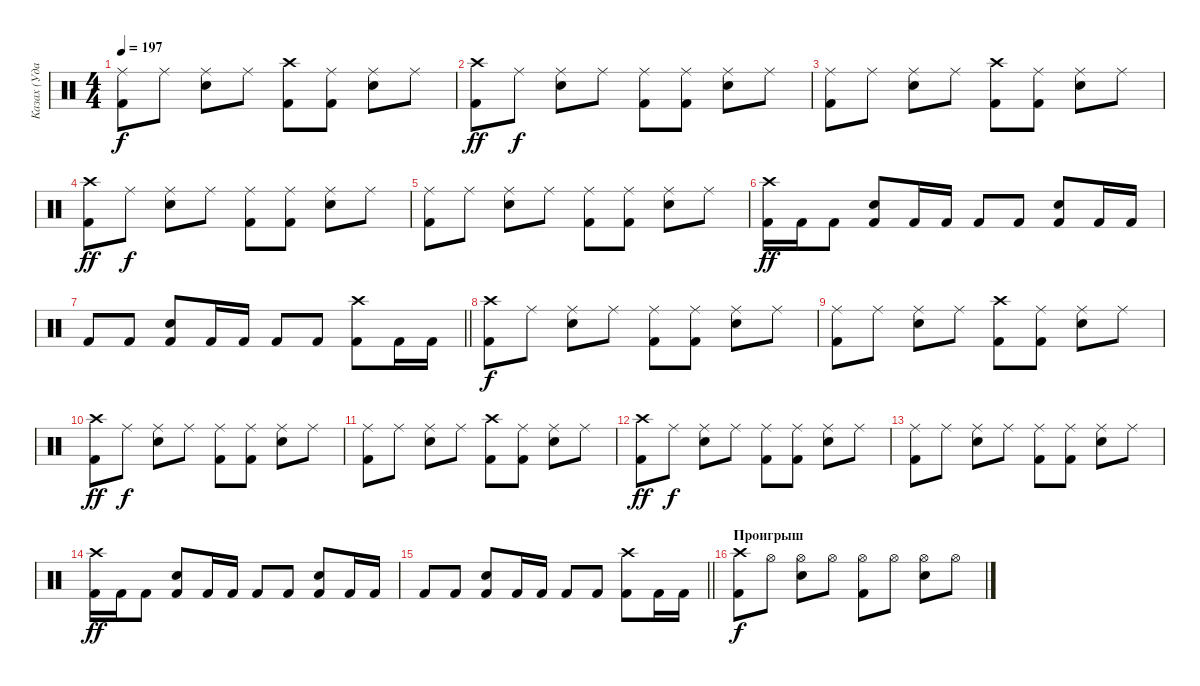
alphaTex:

\track ("Казах (Ударные)" "Казах (Уда") {instrument percussion}
\staff {score}
\articulation defaults
\ts (4 4)
\tempo 197
\clef neutral
\ks c
("Ride (middle)" "Kick (hit) 2").8{dy f} "Ride (middle)".8 ("Ride (middle)" "Electric Snare (hit)").8 "Ride (middle)".8 ("Crash high (hit)" "Kick (hit) 2").8 ("Ride (middle)" "Kick (hit) 2").8 ("Ride (middle)" "Electric Snare (hit)").8 "Ride (middle)".8 |
("Crash high (hit)" "Kick (hit) 2").8{dy ff} "Ride (middle)".8{dy f} ("Ride (middle)" "Electric Snare (hit)").8 "Ride (middle)".8 ("Ride (middle)" "Kick (hit) 2").8 ("Ride (middle)" "Kick (hit) 2").8 ("Ride (middle)" "Electric Snare (hit)").8 "Ride (middle)".8 |
("Ride (middle)" "Kick (hit) 2").8 "Ride (middle)".8 ("Ride (middle)" "Electric Snare (hit)").8 "Ride (middle)".8 ("Crash high (hit)" "Kick (hit) 2").8 ("Ride (middle)" "Kick (hit) 2").8 ("Ride (middle)" "Electric Snare (hit)").8 "Ride (middle)".8 |
("Crash high (hit)" "Kick (hit) 2").8{dy ff} "Ride (middle)".8{dy f} ("Ride (middle)" "Electric Snare (hit)").8 "Ride (middle)".8 ("Ride (middle)" "Kick (hit) 2").8 ("Ride (middle)" "Kick (hit) 2").8 ("Ride (middle)" "Electric Snare (hit)").8 "Ride (middle)".8 |
("Ride (middle)" "Kick (hit) 2").8 "Ride (middle)".8 ("Ride (middle)" "Electric Snare (hit)").8 "Ride (middle)".8 ("Ride (middle)" "Kick (hit) 2").8 ("Ride (middle)" "Kick (hit) 2").8 ("Ride (middle)" "Electric Snare (hit)").8 "Ride (middle)".8 |
("Crash high (hit)" "Kick (hit) 2").16{dy ff} "Kick (hit) 2".16 "Kick (hit) 2".8 ("Electric Snare (hit)" "Kick (hit) 2").8 "Kick (hit) 2".16 "Kick (hit) 2".16 "Kick (hit) 2".8 "Kick (hit) 2".8 ("Electric Snare (hit)" "Kick (hit) 2").8 "Kick (hit) 2".16 "Kick (hit) 2".16 |
\barLineRight lightlight "Kick (hit) 2".8 "Kick (hit) 2".8
("Electric Snare (hit)" "Kick (hit) 2").8 "Kick (hit) 2".16 "Kick (hit) 2".16 "Kick (hit) 2".8 "Kick (hit) 2".8 ("Crash high (hit)" "Kick (hit) 2").8 "Kick (hit) 2".16 "Kick (hit) 2".16 |
("Crash high (hit)" "Kick (hit) 2").8{dy f} "Ride (middle)".8 ("Ride (middle)" "Electric Snare (hit)").8 "Ride (middle)".8 ("Ride (middle)" "Kick (hit) 2").8 ("Ride (middle)" "Kick (hit) 2").8 ("Ride (middle)" "Electric Snare (hit)").8 "Ride (middle)".8 |
("Ride (middle)" "Kick (hit) 2").8 "Ride (middle)".8 ("Ride (middle)" "Electric Snare (hit)").8 "Ride (middle)".8 ("Crash high (hit)" "Kick (hit) 2").8 ("Ride (middle)" "Kick (hit) 2").8 ("Ride (middle)" "Electric Snare (hit)").8 "Ride (middle)".8 |
("Crash high (hit)" "Kick (hit) 2").8{dy ff} "Ride (middle)".8{dy f} ("Ride (middle)" "Electric Snare (hit)").8 "Ride (middle)".8 ("Ride (middle)" "Kick (hit) 2").8 ("Ride (middle)" "Kick (hit) 2").8 ("Ride (middle)" "Electric Snare (hit)").8 "Ride (middle)".8 |
("Ride (middle)" "Kick (hit) 2").8 "Ride (middle)".8 ("Ride (middle)" "Electric Snare (hit)").8 "Ride (middle)".8 ("Crash high (hit)" "Kick (hit) 2").8 ("Ride (middle)" "Kick (hit) 2").8 ("Ride (middle)" "Electric Snare (hit)").8 "Ride (middle)".8 |
("Crash high (hit)" "Kick (hit) 2").8{dy ff} "Ride (middle)".8{dy f} ("Ride (middle)" "Electric Snare (hit)").8 "Ride (middle)".8 ("Ride (middle)" "Kick (hit) 2").8 ("Ride (middle)" "Kick (hit) 2").8 ("Ride (middle)" "Electric Snare (hit)").8 "Ride (middle)".8 |
("Ride (middle)" "Kick (hit) 2").8 "Ride (middle)".8 ("Ride (middle)" "Electric Snare (hit)").8 "Ride (middle)".8 ("Ride (middle)" "Kick (hit) 2").8 ("Ride (middle)" "Kick (hit) 2").8 ("Ride (middle)" "Electric Snare (hit)").8 "Ride (middle)".8 |
("Crash high (hit)" "Kick (hit) 2").16{dy ff} "Kick (hit) 2".16 "Kick (hit) 2".8 ("Electric Snare (hit)" "Kick (hit) 2").8 "Kick (hit) 2".16 "Kick (hit) 2".16 "Kick (hit) 2".8 "Kick (hit) 2".8 ("Electric Snare (hit)" "Kick (hit) 2").8 "Kick (hit) 2".16 "Kick (hit) 2".16 |
\barLineRight lightlight "Kick (hit) 2".8 "Kick (hit) 2".8
("Electric Snare (hit)" "Kick (hit) 2").8 "Kick (hit) 2".16 "Kick (hit) 2".16 "Kick (hit) 2".8 "Kick (hit) 2".8 ("Crash high (hit)" "Kick (hit) 2").8 "Kick (hit) 2".16 "Kick (hit) 2".16 |
\section ("" "Проигрыш")
("Crash high (hit)" "Kick (hit) 2").8{dy f} "Hi-Hat (open)".8 ("Hi-Hat (open)" "Electric Snare (hit)").8 "Hi-Hat (open)".8 ("Hi-Hat (open)" "Kick (hit) 2").8 "Hi-Hat (open)".8 ("Hi-Hat (open)" "Electric Snare (hit)").8 "Hi-Hat (open)".8
